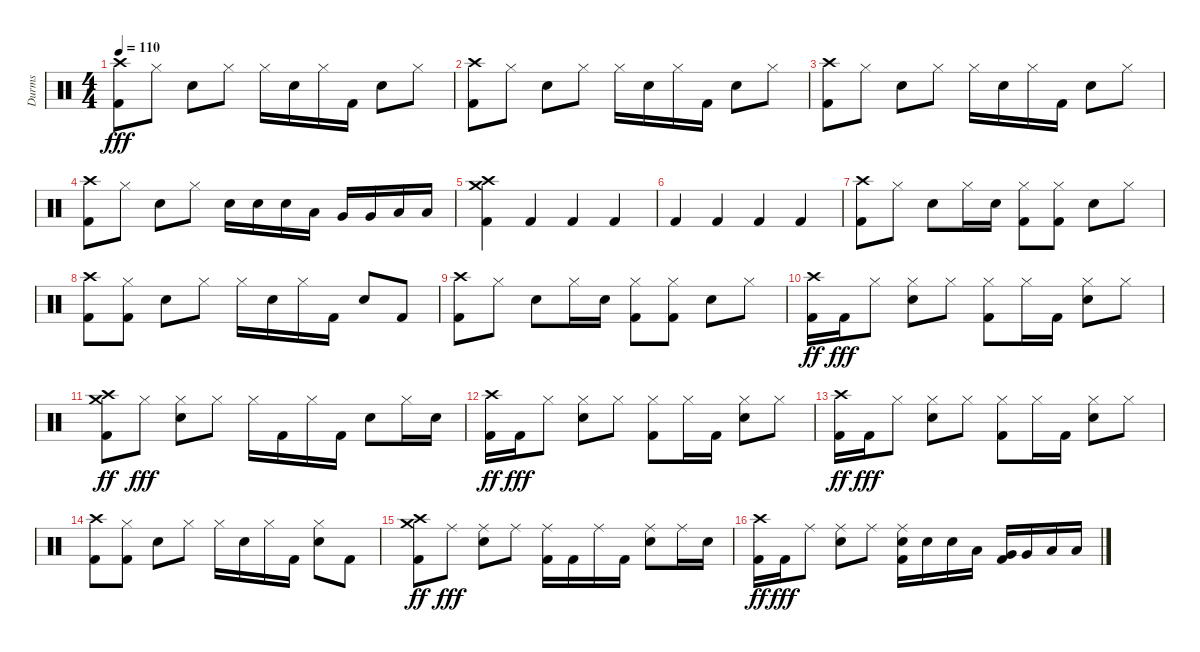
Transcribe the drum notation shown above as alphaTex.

\track ("Durms" "Durms") {instrument percussion}
\staff {score}
\articulation defaults
\ts (4 4)
\tempo 110
\clef neutral
\ks c
("Crash high (hit)" "Kick (hit) 2").8{dy fff} "Hi-Hat (closed)".8 "Electric Snare (hit)".8 "Hi-Hat (closed)".8 "Hi-Hat (closed)".16 "Electric Snare (hit)".16 "Hi-Hat (closed)".16 "Kick (hit) 2".16 "Electric Snare (hit)".8 "Hi-Hat (closed)".8 |
("Crash high (hit)" "Kick (hit) 2").8 "Hi-Hat (closed)".8 "Electric Snare (hit)".8 "Hi-Hat (closed)".8 "Hi-Hat (closed)".16 "Electric Snare (hit)".16 "Hi-Hat (closed)".16 "Kick (hit) 2".16 "Electric Snare (hit)".8 "Hi-Hat (closed)".8 |
("Crash high (hit)" "Kick (hit) 2").8 "Hi-Hat (closed)".8 "Electric Snare (hit)".8 "Hi-Hat (closed)".8 "Hi-Hat (closed)".16 "Electric Snare (hit)".16 "Hi-Hat (closed)".16 "Kick (hit) 2".16 "Electric Snare (hit)".8 "Hi-Hat (closed)".8 |
("Crash high (hit)" "Kick (hit) 2").8 "Hi-Hat (closed)".8 "Electric Snare (hit)".8 "Hi-Hat (closed)".8 "Electric Snare (hit)".16 "Electric Snare (hit)".16 "Electric Snare (hit)".16 "Low Tom (hit)".16 "Very Low Tom (hit)".16 "Very Low Tom (hit)".16 "Low Floor Tom (hit)".16 "Low Floor Tom (hit)".16 |
("Crash high (hit)" "Crash medium (hit)" "Kick (hit) 2").4 "Kick (hit) 2".4 "Kick (hit) 2".4 "Kick (hit) 2".4 |
"Kick (hit) 2".4 "Kick (hit) 2".4 "Kick (hit) 2".4 "Kick (hit) 2".4 |
("Crash high (hit)" "Kick (hit) 2").8 "Hi-Hat (closed)".8 "Electric Snare (hit)".8 "Hi-Hat (closed)".16 "Electric Snare (hit)".16 ("Hi-Hat (closed)" "Kick (hit) 2").8 ("Hi-Hat (closed)" "Kick (hit) 2").8 "Electric Snare (hit)".8 "Hi-Hat (closed)".8 |
("Crash high (hit)" "Kick (hit) 2").8 ("Hi-Hat (closed)" "Kick (hit) 2").8 "Electric Snare (hit)".8 "Hi-Hat (closed)".8 "Hi-Hat (closed)".16 "Electric Snare (hit)".16 "Hi-Hat (closed)".16 "Kick (hit) 2".16 "Electric Snare (hit)".8 "Kick (hit) 2".8 |
("Crash high (hit)" "Kick (hit) 2").8 "Hi-Hat (closed)".8 "Electric Snare (hit)".8 "Hi-Hat (closed)".16 "Electric Snare (hit)".16 ("Hi-Hat (closed)" "Kick (hit) 2").8 ("Hi-Hat (closed)" "Kick (hit) 2").8 "Electric Snare (hit)".8 "Hi-Hat (closed)".8 |
("Crash high (hit)" "Kick (hit) 2").16{dy ff} "Kick (hit) 2".16{dy fff} "Hi-Hat (closed)".8 ("Hi-Hat (closed)" "Electric Snare (hit)").8 "Hi-Hat (closed)".8 ("Hi-Hat (closed)" "Kick (hit) 2").8 "Hi-Hat (closed)".16 "Kick (hit) 2".16 ("Hi-Hat (closed)" "Electric Snare (hit)").8 "Hi-Hat (closed)".8 |
("Crash medium (hit)" "Crash high (hit)" "Kick (hit) 2").8{dy ff} "Hi-Hat (closed)".8{dy fff} ("Hi-Hat (closed)" "Electric Snare (hit)").8 "Hi-Hat (closed)".8 "Hi-Hat (closed)".16 "Kick (hit) 2".16 "Hi-Hat (closed)".16 "Kick (hit) 2".16 "Electric Snare (hit)".8 "Hi-Hat (closed)".16 "Electric Snare (hit)".16 |
("Crash high (hit)" "Kick (hit) 2").16{dy ff} "Kick (hit) 2".16{dy fff} "Hi-Hat (closed)".8 ("Hi-Hat (closed)" "Electric Snare (hit)").8 "Hi-Hat (closed)".8 ("Hi-Hat (closed)" "Kick (hit) 2").8 "Hi-Hat (closed)".16 "Kick (hit) 2".16 ("Hi-Hat (closed)" "Electric Snare (hit)").8 "Hi-Hat (closed)".8 |
("Crash high (hit)" "Kick (hit) 2").16{dy ff} "Kick (hit) 2".16{dy fff} "Hi-Hat (closed)".8 ("Hi-Hat (closed)" "Electric Snare (hit)").8 "Hi-Hat (closed)".8 ("Hi-Hat (closed)" "Kick (hit) 2").8 "Hi-Hat (closed)".16 "Kick (hit) 2".16 ("Hi-Hat (closed)" "Electric Snare (hit)").8 "Hi-Hat (closed)".8 |
("Crash high (hit)" "Kick (hit) 2").8 ("Hi-Hat (closed)" "Kick (hit) 2").8 "Electric Snare (hit)".8 "Hi-Hat (closed)".8 "Hi-Hat (closed)".16 "Electric Snare (hit)".16 "Hi-Hat (closed)".16 "Kick (hit) 2".16 ("Hi-Hat (closed)" "Electric Snare (hit)").8 "Kick (hit) 2".8 |
("Crash medium (hit)" "Crash high (hit)" "Kick (hit) 2").8{dy ff} "Ride (middle)".8{dy fff} ("Ride (middle)" "Electric Snare (hit)").8 "Ride (middle)".8 ("Ride (middle)" "Kick (hit) 2").16 "Kick (hit) 2".16 "Ride (middle)".16 "Kick (hit) 2".16 ("Ride (middle)" "Electric Snare (hit)").8 "Ride (middle)".16 "Electric Snare (hit)".16 |
("Crash high (hit)" "Kick (hit) 2").16{dy ff} "Kick (hit) 2".16{dy fff} "Ride (middle)".8 ("Ride (middle)" "Electric Snare (hit)").8 "Ride (middle)".8 ("Ride (middle)" "Electric Snare (hit)" "Kick (hit) 2").16 "Electric Snare (hit)".16 "Electric Snare (hit)".16 "Low Tom (hit)".16 ("Very Low Tom (hit)" "Kick (hit) 2").16 "Very Low Tom (hit)".16 "Low Floor Tom (hit)".16 "Low Floor Tom (hit)".16
